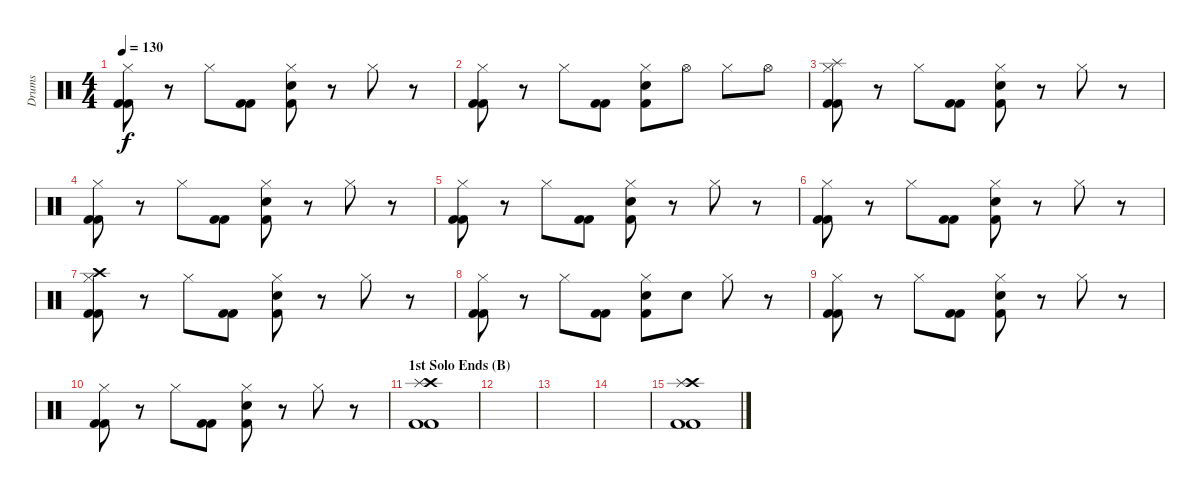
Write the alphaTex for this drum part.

\track ("Drums" "Drums") {instrument percussion}
\staff {score}
\articulation defaults
\ts (4 4)
\tempo 130
\clef neutral
\ks c
("Hi-Hat (closed)" "Kick (hit) 2" "Kick (hit) 2").8{dy f} r.8 "Hi-Hat (closed)".8 ("Kick (hit) 2" "Kick (hit) 2").8 ("Hi-Hat (closed)" "Kick (hit) 2" "Snare (hit) 2").8 r.8 "Hi-Hat (closed)".8 r.8 |
("Hi-Hat (closed)" "Kick (hit) 2" "Kick (hit) 2").8 r.8 "Hi-Hat (closed)".8 ("Kick (hit) 2" "Kick (hit) 2").8 ("Hi-Hat (closed)" "Kick (hit) 2" "Snare (hit) 2").8 "Hi-Hat (open)".8 "Hi-Hat (closed)".8 "Hi-Hat (open)".8 |
("Hi-Hat (closed)" "Kick (hit) 2" "Kick (hit) 2" "Splash (hit)").8 r.8 "Hi-Hat (closed)".8 ("Kick (hit) 2" "Kick (hit) 2").8 ("Hi-Hat (closed)" "Kick (hit) 2" "Snare (hit) 2").8 r.8 "Hi-Hat (closed)".8 r.8 |
("Hi-Hat (closed)" "Kick (hit) 2" "Kick (hit) 2").8 r.8 "Hi-Hat (closed)".8 ("Kick (hit) 2" "Kick (hit) 2").8 ("Hi-Hat (closed)" "Kick (hit) 2" "Snare (hit) 2").8 r.8 "Hi-Hat (closed)".8 r.8 |
("Hi-Hat (closed)" "Kick (hit) 2" "Kick (hit) 2").8 r.8 "Hi-Hat (closed)".8 ("Kick (hit) 2" "Kick (hit) 2").8 ("Hi-Hat (closed)" "Kick (hit) 2" "Snare (hit) 2").8 r.8 "Hi-Hat (closed)".8 r.8 |
("Hi-Hat (closed)" "Kick (hit) 2" "Kick (hit) 2").8 r.8 "Hi-Hat (closed)".8 ("Kick (hit) 2" "Kick (hit) 2").8 ("Hi-Hat (closed)" "Kick (hit) 2" "Snare (hit) 2").8 r.8 "Hi-Hat (closed)".8 r.8 |
("Hi-Hat (closed)" "Kick (hit) 2" "Kick (hit) 2" "Crash high (hit)").8 r.8 "Hi-Hat (closed)".8 ("Kick (hit) 2" "Kick (hit) 2").8 ("Hi-Hat (closed)" "Kick (hit) 2" "Snare (hit) 2").8 r.8 "Hi-Hat (closed)".8 r.8 |
("Hi-Hat (closed)" "Kick (hit) 2" "Kick (hit) 2").8 r.8 "Hi-Hat (closed)".8 ("Kick (hit) 2" "Kick (hit) 2").8 ("Hi-Hat (closed)" "Kick (hit) 2" "Snare (hit) 2").8 "Snare (hit) 2".8 "Hi-Hat (closed)".8 r.8 |
("Hi-Hat (closed)" "Kick (hit) 2" "Kick (hit) 2").8 r.8 "Hi-Hat (closed)".8 ("Kick (hit) 2" "Kick (hit) 2").8 ("Hi-Hat (closed)" "Kick (hit) 2" "Snare (hit) 2").8 r.8 "Hi-Hat (closed)".8 r.8 |
("Hi-Hat (closed)" "Kick (hit) 2" "Kick (hit) 2").8 r.8 "Hi-Hat (closed)".8 ("Kick (hit) 2" "Kick (hit) 2").8 ("Hi-Hat (closed)" "Kick (hit) 2" "Snare (hit) 2").8 r.8 "Hi-Hat (closed)".8 r.8 |
\section ("" "1st Solo Ends (B)")
("Kick (hit) 2" "Kick (hit) 2" "Crash high (hit)" "Splash (hit)").1 |
|
|
|
("Kick (hit) 2" "Kick (hit) 2" "Crash high (hit)" "Splash (hit)").1
